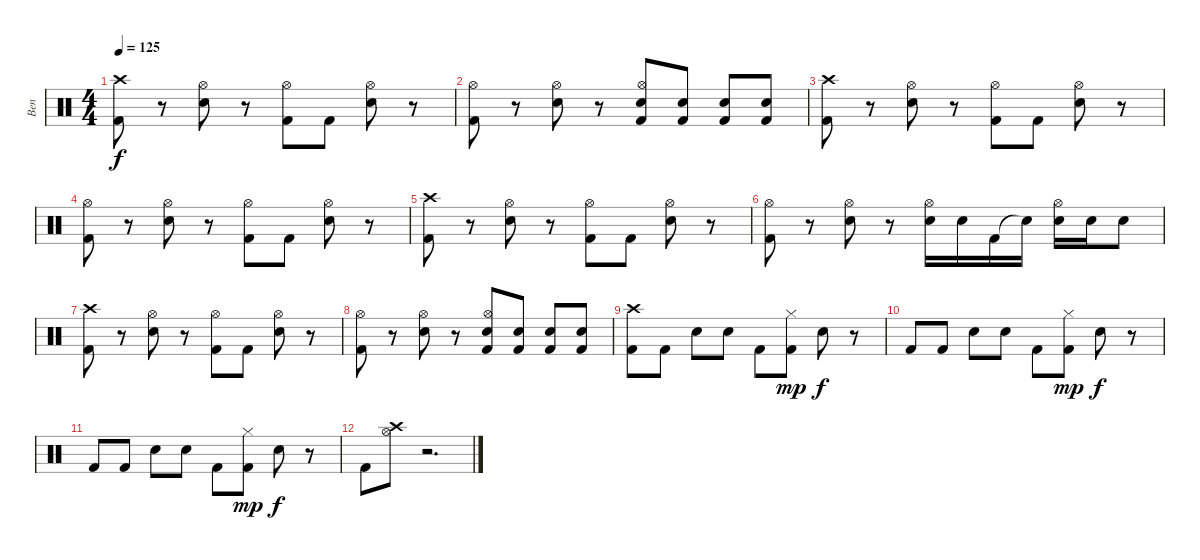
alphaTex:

\track ("Ben" "Ben") {instrument percussion}
\staff {score}
\articulation defaults
\ts (4 4)
\tempo 125
\clef neutral
\ks c
("Crash high (hit)" "Kick (hit) 2").8{dy f} r.8 ("Hi-Hat (open)" "Snare (hit) 2").8 r.8 ("Hi-Hat (open)" "Kick (hit) 2").8 "Kick (hit) 2".8 ("Hi-Hat (open)" "Snare (hit) 2").8 r.8 |
("Hi-Hat (open)" "Kick (hit) 2").8 r.8 ("Hi-Hat (open)" "Snare (hit) 2").8 r.8 ("Hi-Hat (open)" "Snare (hit) 2" "Kick (hit) 2").8 ("Snare (hit) 2" "Kick (hit) 2").8 ("Snare (hit) 2" "Kick (hit) 2").8 ("Snare (hit) 2" "Kick (hit) 2").8 |
("Crash high (hit)" "Kick (hit) 2").8 r.8 ("Hi-Hat (open)" "Snare (hit) 2").8 r.8 ("Hi-Hat (open)" "Kick (hit) 2").8 "Kick (hit) 2".8 ("Hi-Hat (open)" "Snare (hit) 2").8 r.8 |
("Hi-Hat (open)" "Kick (hit) 2").8 r.8 ("Hi-Hat (open)" "Snare (hit) 2").8 r.8 ("Hi-Hat (open)" "Kick (hit) 2").8 "Kick (hit) 2".8 ("Hi-Hat (open)" "Snare (hit) 2").8 r.8 |
("Crash high (hit)" "Kick (hit) 2").8 r.8 ("Hi-Hat (open)" "Snare (hit) 2").8 r.8 ("Hi-Hat (open)" "Kick (hit) 2").8 "Kick (hit) 2".8 ("Hi-Hat (open)" "Snare (hit) 2").8 r.8 |
("Hi-Hat (open)" "Kick (hit) 2").8 r.8 ("Hi-Hat (open)" "Snare (hit) 2").8 r.8 ("Hi-Hat (open)" "Snare (hit) 2").16 "Snare (hit) 2".16 "Kick (hit) 2".16 "Snare (hit)"{t}.16 ("Hi-Hat (open)" "Snare (hit) 2").16 "Snare (hit) 2".16 "Snare (hit) 2".8 |
("Crash high (hit)" "Kick (hit) 2").8 r.8 ("Hi-Hat (open)" "Snare (hit) 2").8 r.8 ("Hi-Hat (open)" "Kick (hit) 2").8 "Kick (hit) 2".8 ("Hi-Hat (open)" "Snare (hit) 2").8 r.8 |
("Hi-Hat (open)" "Kick (hit) 2").8 r.8 ("Hi-Hat (open)" "Snare (hit) 2").8 r.8 ("Hi-Hat (open)" "Snare (hit) 2" "Kick (hit) 2").8 ("Snare (hit) 2" "Kick (hit) 2").8 ("Snare (hit) 2" "Kick (hit) 2").8 ("Snare (hit) 2" "Kick (hit) 2").8 |
("Crash high (hit)" "Kick (hit) 2").8 "Kick (hit) 2".8 "Snare (hit) 2".8 "Snare (hit) 2".8 "Kick (hit) 2".8 ("Hi-Hat (closed)" "Kick (hit) 2").8{dy mp} "Snare (hit) 2".8{dy f} r.8 |
"Kick (hit) 2".8 "Kick (hit) 2".8 "Snare (hit) 2".8 "Snare (hit) 2".8 "Kick (hit) 2".8 ("Hi-Hat (closed)" "Kick (hit) 2").8{dy mp} "Snare (hit) 2".8{dy f} r.8 |
"Kick (hit) 2".8 "Kick (hit) 2".8 "Snare (hit) 2".8 "Snare (hit) 2".8 "Kick (hit) 2".8 ("Hi-Hat (closed)" "Kick (hit) 2").8{dy mp} "Snare (hit) 2".8{dy f} r.8 |
"Kick (hit) 2".8 ("Hi-Hat (open)" "Crash high (hit)").8 r.2{d}
